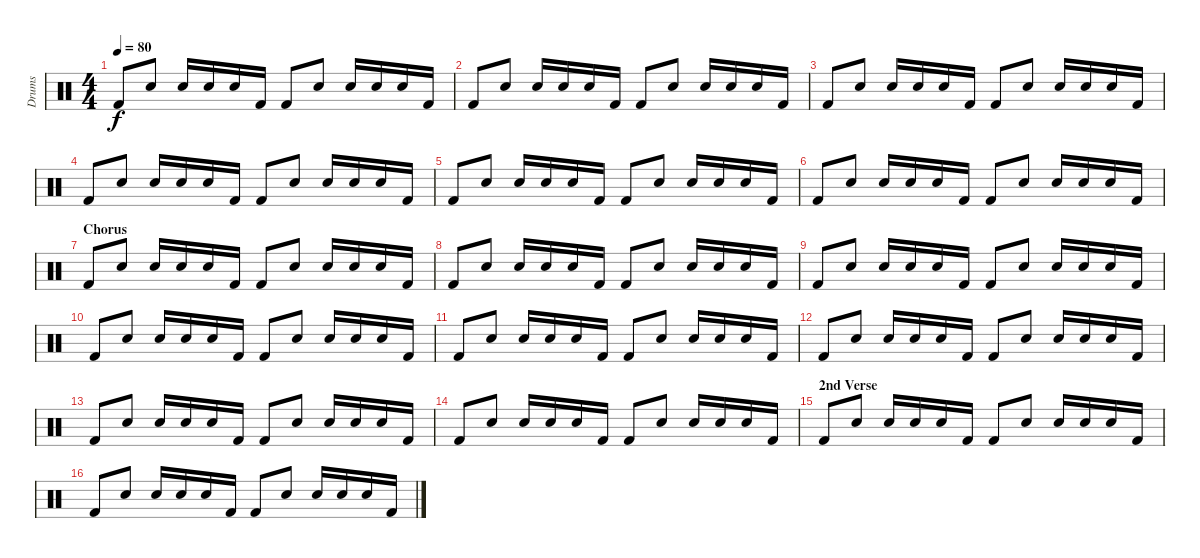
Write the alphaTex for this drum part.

\track ("Drums" "Drums") {instrument percussion}
\staff {score}
\articulation defaults
\ts (4 4)
\tempo 80
\clef neutral
\ks c "Kick (hit) 2".8{dy f} "Electric Snare (hit)".8 "Snare (hit) 2".16 "Snare (hit) 2".16 "Electric Snare (hit)".16 "Kick (hit) 2".16 "Kick (hit) 2".8 "Electric Snare (hit)".8 "Snare (hit) 2".16 "Snare (hit) 2".16 "Electric Snare (hit)".16 "Kick (hit) 2".16
|
"Kick (hit) 2".8 "Electric Snare (hit)".8 "Snare (hit) 2".16 "Snare (hit) 2".16 "Electric Snare (hit)".16 "Kick (hit) 2".16 "Kick (hit) 2".8 "Electric Snare (hit)".8 "Snare (hit) 2".16 "Snare (hit) 2".16 "Electric Snare (hit)".16 "Kick (hit) 2".16 |
"Kick (hit) 2".8 "Electric Snare (hit)".8 "Snare (hit) 2".16 "Snare (hit) 2".16 "Electric Snare (hit)".16 "Kick (hit) 2".16 "Kick (hit) 2".8 "Electric Snare (hit)".8 "Snare (hit) 2".16 "Snare (hit) 2".16 "Electric Snare (hit)".16 "Kick (hit) 2".16 |
"Kick (hit) 2".8 "Electric Snare (hit)".8 "Snare (hit) 2".16 "Snare (hit) 2".16 "Electric Snare (hit)".16 "Kick (hit) 2".16 "Kick (hit) 2".8 "Electric Snare (hit)".8 "Snare (hit) 2".16 "Snare (hit) 2".16 "Electric Snare (hit)".16 "Kick (hit) 2".16 |
"Kick (hit) 2".8 "Electric Snare (hit)".8 "Snare (hit) 2".16 "Snare (hit) 2".16 "Electric Snare (hit)".16 "Kick (hit) 2".16 "Kick (hit) 2".8 "Electric Snare (hit)".8 "Snare (hit) 2".16 "Snare (hit) 2".16 "Electric Snare (hit)".16 "Kick (hit) 2".16 |
"Kick (hit) 2".8 "Electric Snare (hit)".8 "Snare (hit) 2".16 "Snare (hit) 2".16 "Electric Snare (hit)".16 "Kick (hit) 2".16 "Kick (hit) 2".8 "Electric Snare (hit)".8 "Snare (hit) 2".16 "Snare (hit) 2".16 "Electric Snare (hit)".16 "Kick (hit) 2".16 |
\section ("" "Chorus")
"Kick (hit) 2".8 "Electric Snare (hit)".8 "Snare (hit) 2".16 "Snare (hit) 2".16 "Electric Snare (hit)".16 "Kick (hit) 2".16 "Kick (hit) 2".8 "Electric Snare (hit)".8 "Snare (hit) 2".16 "Snare (hit) 2".16 "Electric Snare (hit)".16 "Kick (hit) 2".16 |
"Kick (hit) 2".8 "Electric Snare (hit)".8 "Snare (hit) 2".16 "Snare (hit) 2".16 "Electric Snare (hit)".16 "Kick (hit) 2".16 "Kick (hit) 2".8 "Electric Snare (hit)".8 "Snare (hit) 2".16 "Snare (hit) 2".16 "Electric Snare (hit)".16 "Kick (hit) 2".16 |
"Kick (hit) 2".8 "Electric Snare (hit)".8 "Snare (hit) 2".16 "Snare (hit) 2".16 "Electric Snare (hit)".16 "Kick (hit) 2".16 "Kick (hit) 2".8 "Electric Snare (hit)".8 "Snare (hit) 2".16 "Snare (hit) 2".16 "Electric Snare (hit)".16 "Kick (hit) 2".16 |
"Kick (hit) 2".8 "Electric Snare (hit)".8 "Snare (hit) 2".16 "Snare (hit) 2".16 "Electric Snare (hit)".16 "Kick (hit) 2".16 "Kick (hit) 2".8 "Electric Snare (hit)".8 "Snare (hit) 2".16 "Snare (hit) 2".16 "Electric Snare (hit)".16 "Kick (hit) 2".16 |
"Kick (hit) 2".8 "Electric Snare (hit)".8 "Snare (hit) 2".16 "Snare (hit) 2".16 "Electric Snare (hit)".16 "Kick (hit) 2".16 "Kick (hit) 2".8 "Electric Snare (hit)".8 "Snare (hit) 2".16 "Snare (hit) 2".16 "Electric Snare (hit)".16 "Kick (hit) 2".16 |
"Kick (hit) 2".8 "Electric Snare (hit)".8 "Snare (hit) 2".16 "Snare (hit) 2".16 "Electric Snare (hit)".16 "Kick (hit) 2".16 "Kick (hit) 2".8 "Electric Snare (hit)".8 "Snare (hit) 2".16 "Snare (hit) 2".16 "Electric Snare (hit)".16 "Kick (hit) 2".16 |
"Kick (hit) 2".8 "Electric Snare (hit)".8 "Snare (hit) 2".16 "Snare (hit) 2".16 "Electric Snare (hit)".16 "Kick (hit) 2".16 "Kick (hit) 2".8 "Electric Snare (hit)".8 "Snare (hit) 2".16 "Snare (hit) 2".16 "Electric Snare (hit)".16 "Kick (hit) 2".16 |
"Kick (hit) 2".8 "Electric Snare (hit)".8 "Snare (hit) 2".16 "Snare (hit) 2".16 "Electric Snare (hit)".16 "Kick (hit) 2".16 "Kick (hit) 2".8 "Electric Snare (hit)".8 "Snare (hit) 2".16 "Snare (hit) 2".16 "Electric Snare (hit)".16 "Kick (hit) 2".16 |
\section ("" "2nd Verse")
"Kick (hit) 2".8 "Electric Snare (hit)".8 "Snare (hit) 2".16 "Snare (hit) 2".16 "Electric Snare (hit)".16 "Kick (hit) 2".16 "Kick (hit) 2".8 "Electric Snare (hit)".8 "Snare (hit) 2".16 "Snare (hit) 2".16 "Electric Snare (hit)".16 "Kick (hit) 2".16 |
"Kick (hit) 2".8 "Electric Snare (hit)".8 "Snare (hit) 2".16 "Snare (hit) 2".16 "Electric Snare (hit)".16 "Kick (hit) 2".16 "Kick (hit) 2".8 "Electric Snare (hit)".8 "Snare (hit) 2".16 "Snare (hit) 2".16 "Electric Snare (hit)".16 "Kick (hit) 2".16
